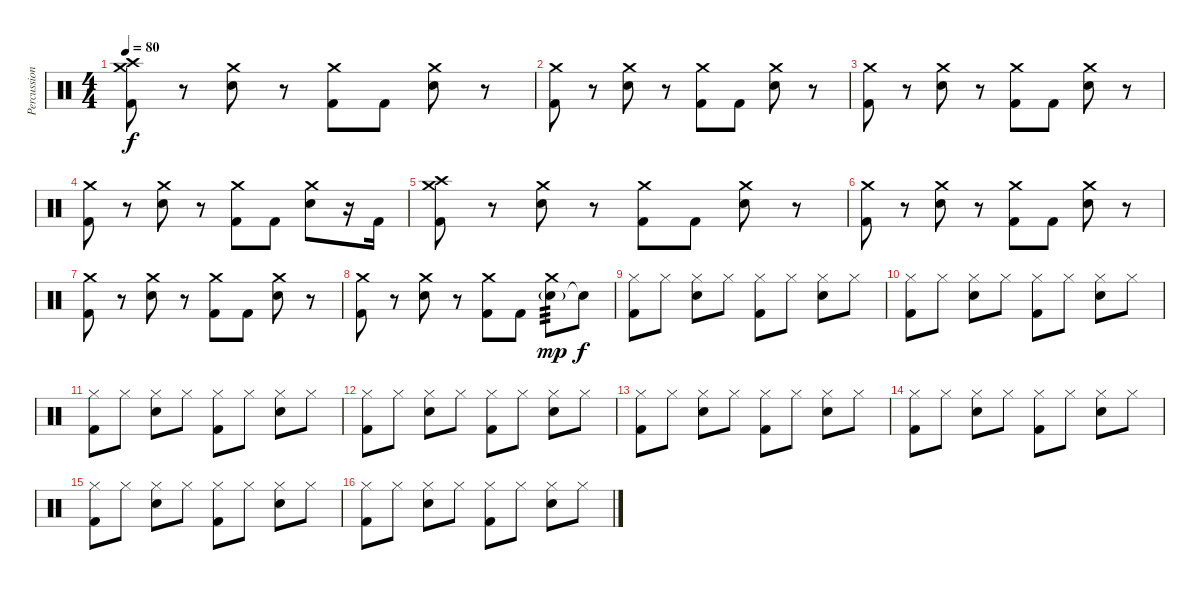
\track ("Percussion" "Percussion") {instrument percussion}
\staff {score}
\articulation defaults
\ts (4 4)
\tempo 80
\clef neutral
\ks c
("Kick (hit) 2" "Crash medium (hit)" "Crash high (hit)").8{dy f} r.8 ("Electric Snare (hit)" "Crash medium (hit)").8 r.8 ("Kick (hit) 2" "Crash medium (hit)").8 "Kick (hit) 2".8 ("Electric Snare (hit)" "Crash medium (hit)").8 r.8 |
("Kick (hit) 2" "Crash medium (hit)").8 r.8 ("Electric Snare (hit)" "Crash medium (hit)").8 r.8 ("Kick (hit) 2" "Crash medium (hit)").8 "Kick (hit) 2".8 ("Electric Snare (hit)" "Crash medium (hit)").8 r.8 |
("Kick (hit) 2" "Crash medium (hit)").8 r.8 ("Electric Snare (hit)" "Crash medium (hit)").8 r.8 ("Kick (hit) 2" "Crash medium (hit)").8 "Kick (hit) 2".8 ("Electric Snare (hit)" "Crash medium (hit)").8 r.8 |
("Kick (hit) 2" "Crash medium (hit)").8 r.8 ("Electric Snare (hit)" "Crash medium (hit)").8 r.8 ("Kick (hit) 2" "Crash medium (hit)").8 "Kick (hit) 2".8 ("Electric Snare (hit)" "Crash medium (hit)").8 r.16 "Kick (hit) 2".16 |
("Kick (hit) 2" "Crash medium (hit)" "Crash high (hit)").8 r.8 ("Electric Snare (hit)" "Crash medium (hit)").8 r.8 ("Kick (hit) 2" "Crash medium (hit)").8 "Kick (hit) 2".8 ("Electric Snare (hit)" "Crash medium (hit)").8 r.8 |
("Kick (hit) 2" "Crash medium (hit)").8 r.8 ("Electric Snare (hit)" "Crash medium (hit)").8 r.8 ("Kick (hit) 2" "Crash medium (hit)").8 "Kick (hit) 2".8 ("Electric Snare (hit)" "Crash medium (hit)").8 r.8 |
("Kick (hit) 2" "Crash medium (hit)").8 r.8 ("Electric Snare (hit)" "Crash medium (hit)").8 r.8 ("Kick (hit) 2" "Crash medium (hit)").8 "Kick (hit) 2".8 ("Electric Snare (hit)" "Crash medium (hit)").8 r.8 |
("Kick (hit) 2" "Crash medium (hit)").8 r.8 ("Electric Snare (hit)" "Crash medium (hit)").8 r.8 ("Kick (hit) 2" "Crash medium (hit)").8 "Kick (hit) 2".8 ("Electric Snare (hit)"{g} "Crash medium (hit)").8{tp 3 dy mp} "Electric Snare (hit)"{t}.8{dy f} |
("Kick (hit) 2" "Hi-Hat (closed)").8 "Hi-Hat (closed)".8 ("Electric Snare (hit)" "Hi-Hat (closed)").8 "Hi-Hat (closed)".8 ("Kick (hit) 2" "Hi-Hat (closed)").8 "Hi-Hat (closed)".8 ("Electric Snare (hit)" "Hi-Hat (closed)").8 "Hi-Hat (closed)".8 |
("Kick (hit) 2" "Hi-Hat (closed)").8 "Hi-Hat (closed)".8 ("Electric Snare (hit)" "Hi-Hat (closed)").8 "Hi-Hat (closed)".8 ("Kick (hit) 2" "Hi-Hat (closed)").8 "Hi-Hat (closed)".8 ("Electric Snare (hit)" "Hi-Hat (closed)").8 "Hi-Hat (closed)".8 |
("Kick (hit) 2" "Hi-Hat (closed)").8 "Hi-Hat (closed)".8 ("Electric Snare (hit)" "Hi-Hat (closed)").8 "Hi-Hat (closed)".8 ("Kick (hit) 2" "Hi-Hat (closed)").8 "Hi-Hat (closed)".8 ("Electric Snare (hit)" "Hi-Hat (closed)").8 "Hi-Hat (closed)".8 |
("Kick (hit) 2" "Hi-Hat (closed)").8 "Hi-Hat (closed)".8 ("Electric Snare (hit)" "Hi-Hat (closed)").8 "Hi-Hat (closed)".8 ("Kick (hit) 2" "Hi-Hat (closed)").8 "Hi-Hat (closed)".8 ("Electric Snare (hit)" "Hi-Hat (closed)").8 "Hi-Hat (closed)".8 |
("Kick (hit) 2" "Hi-Hat (closed)").8 "Hi-Hat (closed)".8 ("Electric Snare (hit)" "Hi-Hat (closed)").8 "Hi-Hat (closed)".8 ("Kick (hit) 2" "Hi-Hat (closed)").8 "Hi-Hat (closed)".8 ("Electric Snare (hit)" "Hi-Hat (closed)").8 "Hi-Hat (closed)".8 |
("Kick (hit) 2" "Hi-Hat (closed)").8 "Hi-Hat (closed)".8 ("Electric Snare (hit)" "Hi-Hat (closed)").8 "Hi-Hat (closed)".8 ("Kick (hit) 2" "Hi-Hat (closed)").8 "Hi-Hat (closed)".8 ("Electric Snare (hit)" "Hi-Hat (closed)").8 "Hi-Hat (closed)".8 |
("Kick (hit) 2" "Hi-Hat (closed)").8 "Hi-Hat (closed)".8 ("Electric Snare (hit)" "Hi-Hat (closed)").8 "Hi-Hat (closed)".8 ("Kick (hit) 2" "Hi-Hat (closed)").8 "Hi-Hat (closed)".8 ("Electric Snare (hit)" "Hi-Hat (closed)").8 "Hi-Hat (closed)".8 |
("Kick (hit) 2" "Hi-Hat (closed)").8 "Hi-Hat (closed)".8 ("Electric Snare (hit)" "Hi-Hat (closed)").8 "Hi-Hat (closed)".8 ("Kick (hit) 2" "Hi-Hat (closed)").8 "Hi-Hat (closed)".8 ("Electric Snare (hit)" "Hi-Hat (closed)").8 "Hi-Hat (closed)".8
